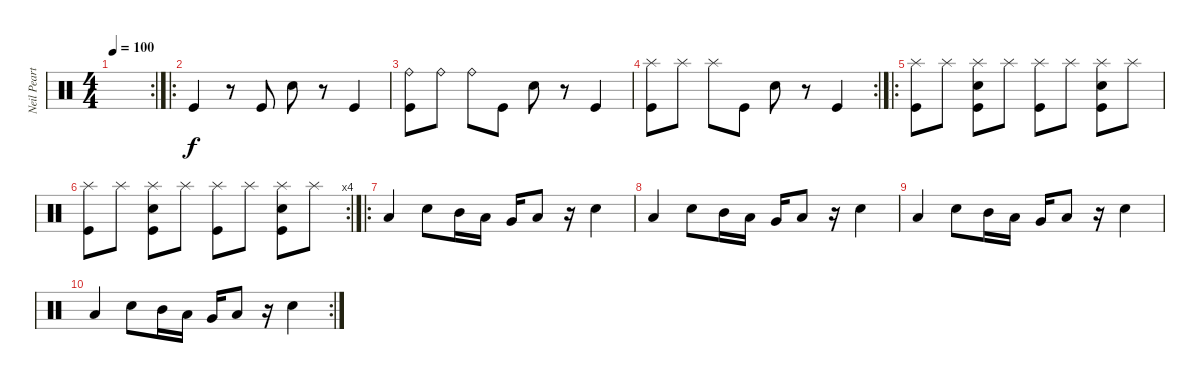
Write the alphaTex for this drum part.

\track ("Neil Peart - Percussion" "Neil Peart") {instrument percussion}
\staff {score}
\articulation defaults
\rc 2
\ts (4 4)
\tempo 100
\clef neutral
\ks c
|
\ro "Kick (hit)".4
r.8 "Kick (hit)".8 "Snare (hit) 2".8 r.8 "Kick (hit)".4 |
("Ride (bell)" "Kick (hit)").8 "Ride (bell)".8 "Ride (bell)".8 "Kick (hit)".8 "Snare (hit) 2".8 r.8 "Kick (hit)".4 |
\rc 2
("Splash (hit)" "Kick (hit)").8 "Splash (hit)".8 "Splash (hit)".8 "Kick (hit)".8 "Snare (hit) 2".8 r.8 "Kick (hit)".4 |
\ro
("Splash (hit)" "Kick (hit)").8 "Splash (hit)".8 ("Snare (hit) 2" "Splash (hit)" "Kick (hit)").8 "Splash (hit)".8 ("Splash (hit)" "Kick (hit)").8 "Splash (hit)".8 ("Snare (hit) 2" "Splash (hit)" "Kick (hit)").8 "Splash (hit)".8 |
\rc 4
("Splash (hit)" "Kick (hit)").8 "Splash (hit)".8 ("Snare (hit) 2" "Splash (hit)" "Kick (hit)").8 "Splash (hit)".8 ("Splash (hit)" "Kick (hit)").8 "Splash (hit)".8 ("Snare (hit) 2" "Splash (hit)" "Kick (hit)").8 "Splash (hit)".8 |
\ro "Low Floor Tom (hit)".4 "Snare (hit) 2".8 "Mid Tom (hit)".16 "Low Tom (hit)".16 "Very Low Tom (hit)".16 "Low Floor Tom (hit)".8
r.16 "Snare (hit) 2".4 |
"Low Floor Tom (hit)".4 "Snare (hit) 2".8 "Mid Tom (hit)".16 "Low Tom (hit)".16 "Very Low Tom (hit)".16 "Low Floor Tom (hit)".8 r.16 "Snare (hit) 2".4 |
"Low Floor Tom (hit)".4 "Snare (hit) 2".8 "Mid Tom (hit)".16 "Low Tom (hit)".16 "Very Low Tom (hit)".16 "Low Floor Tom (hit)".8 r.16 "Snare (hit) 2".4 |
\rc 2 "Low Floor Tom (hit)".4 "Snare (hit) 2".8 "Mid Tom (hit)".16 "Low Tom (hit)".16 "Very Low Tom (hit)".16 "Low Floor Tom (hit)".8
r.16 "Snare (hit) 2".4
